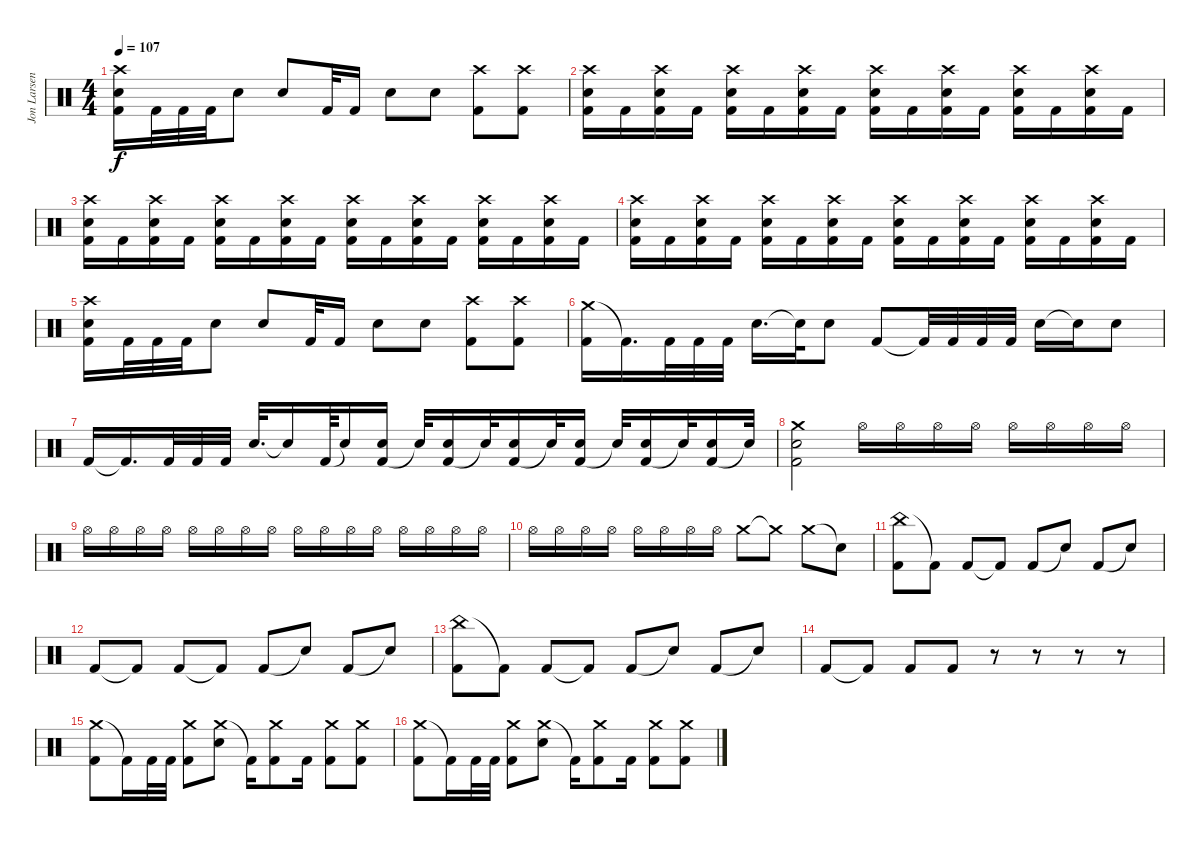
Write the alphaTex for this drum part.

\track ("Jon Larsen (Drums)" "Jon Larsen") {instrument percussion}
\staff {score}
\articulation defaults
\ts (4 4)
\tempo 107
\clef neutral
\ks c
("Crash high (hit)" "Electric Snare (hit)" "Kick (hit) 2").16{dy f} "Kick (hit) 2".32 "Kick (hit) 2".32 "Kick (hit) 2".32 "Electric Snare (hit)".8 "Electric Snare (hit)".8 "Kick (hit) 2".32 "Kick (hit) 2".16 "Electric Snare (hit)".8 "Electric Snare (hit)".8 ("Crash high (hit)" "Kick (hit) 2").8 ("Crash high (hit)" "Kick (hit) 2").8 |
("Crash high (hit)" "Electric Snare (hit)" "Kick (hit) 2").16 "Kick (hit) 2".16 ("Crash high (hit)" "Electric Snare (hit)" "Kick (hit) 2").16 "Kick (hit) 2".16 ("Crash high (hit)" "Electric Snare (hit)" "Kick (hit) 2").16 "Kick (hit) 2".16 ("Crash high (hit)" "Electric Snare (hit)" "Kick (hit) 2").16 "Kick (hit) 2".16 ("Crash high (hit)" "Electric Snare (hit)" "Kick (hit) 2").16 "Kick (hit) 2".16 ("Crash high (hit)" "Electric Snare (hit)" "Kick (hit) 2").16 "Kick (hit) 2".16 ("Crash high (hit)" "Electric Snare (hit)" "Kick (hit) 2").16 "Kick (hit) 2".16 ("Crash high (hit)" "Electric Snare (hit)" "Kick (hit) 2").16 "Kick (hit) 2".16 |
("Crash high (hit)" "Electric Snare (hit)" "Kick (hit) 2").16 "Kick (hit) 2".16 ("Crash high (hit)" "Electric Snare (hit)" "Kick (hit) 2").16 "Kick (hit) 2".16 ("Crash high (hit)" "Electric Snare (hit)" "Kick (hit) 2").16 "Kick (hit) 2".16 ("Crash high (hit)" "Electric Snare (hit)" "Kick (hit) 2").16 "Kick (hit) 2".16 ("Crash high (hit)" "Electric Snare (hit)" "Kick (hit) 2").16 "Kick (hit) 2".16 ("Crash high (hit)" "Electric Snare (hit)" "Kick (hit) 2").16 "Kick (hit) 2".16 ("Crash high (hit)" "Electric Snare (hit)" "Kick (hit) 2").16 "Kick (hit) 2".16 ("Crash high (hit)" "Electric Snare (hit)" "Kick (hit) 2").16 "Kick (hit) 2".16 |
("Crash high (hit)" "Electric Snare (hit)" "Kick (hit) 2").16 "Kick (hit) 2".16 ("Crash high (hit)" "Electric Snare (hit)" "Kick (hit) 2").16 "Kick (hit) 2".16 ("Crash high (hit)" "Electric Snare (hit)" "Kick (hit) 2").16 "Kick (hit) 2".16 ("Crash high (hit)" "Electric Snare (hit)" "Kick (hit) 2").16 "Kick (hit) 2".16 ("Crash high (hit)" "Electric Snare (hit)" "Kick (hit) 2").16 "Kick (hit) 2".16 ("Crash high (hit)" "Electric Snare (hit)" "Kick (hit) 2").16 "Kick (hit) 2".16 ("Crash high (hit)" "Electric Snare (hit)" "Kick (hit) 2").16 "Kick (hit) 2".16 ("Crash high (hit)" "Electric Snare (hit)" "Kick (hit) 2").16 "Kick (hit) 2".16 |
("Crash high (hit)" "Electric Snare (hit)" "Kick (hit) 2").16 "Kick (hit) 2".32 "Kick (hit) 2".32 "Kick (hit) 2".32 "Electric Snare (hit)".8 "Electric Snare (hit)".8 "Kick (hit) 2".32 "Kick (hit) 2".16 "Electric Snare (hit)".8 "Electric Snare (hit)".8 ("Crash high (hit)" "Kick (hit) 2").8 ("Crash high (hit)" "Kick (hit) 2").8 |
("Crash medium (hit)" "Kick (hit) 2").16 "Kick (hit) 2"{t}.16{d} "Kick (hit) 2".32 "Kick (hit) 2".32 "Kick (hit) 2".32 "Electric Snare (hit)".16{d} "Electric Snare (hit)"{t}.32 "Electric Snare (hit)".8 "Kick (hit) 2".8 "Kick (hit) 2"{t}.32 "Kick (hit) 2".32 "Kick (hit) 2".32 "Kick (hit) 2".32 "Electric Snare (hit)".16 "Electric Snare (hit)"{t}.16 "Electric Snare (hit)".8 |
"Kick (hit) 2".16 "Kick (hit) 2"{t}.16{d} "Kick (hit) 2".32 "Kick (hit) 2".32 "Kick (hit) 2".32 "Electric Snare (hit)".32{d} "Electric Snare (hit)"{t}.16 "Kick (hit) 2".64 "Electric Snare (hit)"{t}.16 ("Kick (hit) 2" "Electric Snare (hit)").16 "Electric Snare (hit)"{t}.32 ("Kick (hit) 2" "Electric Snare (hit)").16 "Electric Snare (hit)"{t}.32 ("Kick (hit) 2" "Electric Snare (hit)").16 "Snare (hit)"{t}.32 ("Kick (hit) 2" "Electric Snare (hit)").16 "Snare (hit)"{t}.32 ("Kick (hit) 2" "Electric Snare (hit)").16 "Snare (hit)"{t}.32 ("Kick (hit) 2" "Electric Snare (hit)").16 "Snare (hit)"{t}.32 |
("Crash medium (hit)" "Kick (hit) 2" "Electric Snare (hit)").2 "Hi-Hat (open)".16 "Hi-Hat (open)".16 "Hi-Hat (open)".16 "Hi-Hat (open)".16 "Hi-Hat (open)".16 "Hi-Hat (open)".16 "Hi-Hat (open)".16 "Hi-Hat (open)".16 |
"Hi-Hat (open)".16 "Hi-Hat (open)".16 "Hi-Hat (open)".16 "Hi-Hat (open)".16 "Hi-Hat (open)".16 "Hi-Hat (open)".16 "Hi-Hat (open)".16 "Hi-Hat (open)".16 "Hi-Hat (open)".16 "Hi-Hat (open)".16 "Hi-Hat (open)".16 "Hi-Hat (open)".16 "Hi-Hat (open)".16 "Hi-Hat (open)".16 "Hi-Hat (open)".16 "Hi-Hat (open)".16 |
"Hi-Hat (open)".16 "Hi-Hat (open)".16 "Hi-Hat (open)".16 "Hi-Hat (open)".16 "Hi-Hat (open)".16 "Hi-Hat (open)".16 "Hi-Hat (open)".16 "Hi-Hat (open)".16 "Crash medium (hit)".8 "Crash medium (hit)"{t}.8 "Crash medium (hit)".8 "Snare (hit)"{t}.8 |
("China (hit)" "Kick (hit) 2").8 "Kick (hit) 2"{t}.8 "Kick (hit) 2".8 "Kick (hit) 2"{t}.8 "Kick (hit) 2".8 "Snare (hit)"{t}.8 "Kick (hit) 2".8 "Snare (hit)"{t}.8 |
"Kick (hit) 2".8 "Kick (hit) 2"{t}.8 "Kick (hit) 2".8 "Kick (hit) 2"{t}.8 "Kick (hit) 2".8 "Snare (hit)"{t}.8 "Kick (hit) 2".8 "Snare (hit)"{t}.8 |
("China (hit)" "Kick (hit) 2").8 "Kick (hit) 2"{t}.8 "Kick (hit) 2".8 "Kick (hit) 2"{t}.8 "Kick (hit) 2".8 "Snare (hit)"{t}.8 "Kick (hit) 2".8 "Snare (hit)"{t}.8 |
"Kick (hit) 2".8 "Kick (hit) 2"{t}.8 "Kick (hit) 2".8 "Kick (hit) 2".8 r.8 r.8 r.8 r.8 |
("Crash medium (hit)" "Kick (hit) 2").8 "Kick (hit) 2"{t}.16 "Kick (hit) 2".32 "Kick (hit) 2".32 ("Crash medium (hit)" "Kick (hit) 2").8 ("Crash medium (hit)" "Electric Snare (hit)").8 "Kick (hit) 2"{t}.16 ("Crash medium (hit)" "Kick (hit) 2").8 "Kick (hit) 2".16 ("Crash medium (hit)" "Kick (hit) 2").8 ("Crash medium (hit)" "Kick (hit) 2").8 |
("Crash medium (hit)" "Kick (hit) 2").8 "Kick (hit) 2"{t}.16 "Kick (hit) 2".32 "Kick (hit) 2".32 ("Crash medium (hit)" "Kick (hit) 2").8 ("Crash medium (hit)" "Electric Snare (hit)").8 "Kick (hit) 2"{t}.16 ("Crash medium (hit)" "Kick (hit) 2").8 "Kick (hit) 2".16 ("Crash medium (hit)" "Kick (hit) 2").8 ("Crash medium (hit)" "Kick (hit) 2").8
